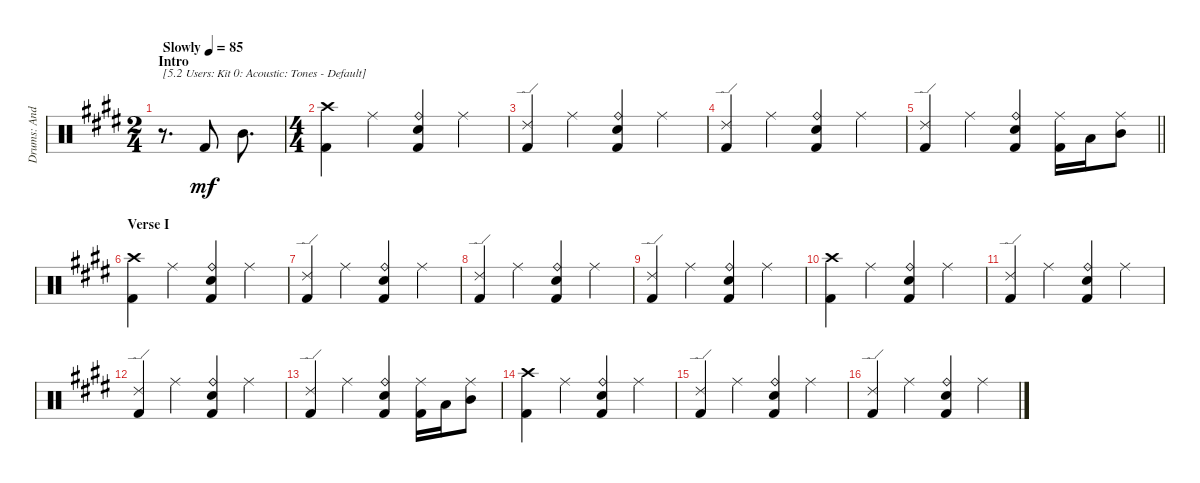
\track ("Drums: Andy" "Drums: And") {instrument percussion}
\staff {score}
\articulation defaults
\ts (2 4)
\section ("" "Intro")
\tempo (85 "Slowly")
\clef neutral
\ks e
r.8{d txt "[5.2 Users: Kit 0: Acoustic: Tones - Default]" dy mf} "Kick (hit) 2".8 "Mid Tom (hit)".8{d} |
\ts (4 4)
("Crash high (hit)" "Kick (hit) 2").4 "Ride (middle)".4 ("Ride (bell)" "Electric Snare (hit)" "Kick (hit) 2").4 "Ride (middle)".4 |
("Ride (edge) 2" "Kick (hit) 2").4 "Ride (middle)".4 ("Ride (bell)" "Electric Snare (hit)" "Kick (hit) 2").4 "Ride (middle)".4 |
("Ride (edge) 2" "Kick (hit) 2").4 "Ride (middle)".4 ("Ride (bell)" "Electric Snare (hit)" "Kick (hit) 2").4 "Ride (middle)".4 |
\barLineRight lightlight
("Ride (edge) 2" "Kick (hit) 2").4 "Ride (middle)".4 ("Ride (bell)" "Electric Snare (hit)" "Kick (hit) 2").4 ("Ride (middle)" "Kick (hit) 2").16 "Low Tom (hit)".16 ("Ride (middle)" "Mid Tom (hit)").8 |
\section ("" "Verse I")
("Crash high (hit)" "Kick (hit) 2").4 "Ride (middle)".4 ("Ride (bell)" "Electric Snare (hit)" "Kick (hit) 2").4 "Ride (middle)".4 |
("Ride (edge) 2" "Kick (hit) 2").4 "Ride (middle)".4 ("Ride (bell)" "Electric Snare (hit)" "Kick (hit) 2").4 "Ride (middle)".4 |
("Ride (edge) 2" "Kick (hit) 2").4 "Ride (middle)".4 ("Ride (bell)" "Electric Snare (hit)" "Kick (hit) 2").4 "Ride (middle)".4 |
("Ride (edge) 2" "Kick (hit) 2").4 "Ride (middle)".4 ("Ride (bell)" "Electric Snare (hit)" "Kick (hit) 2").4 "Ride (middle)".4 |
("Crash high (hit)" "Kick (hit) 2").4 "Ride (middle)".4 ("Ride (bell)" "Electric Snare (hit)" "Kick (hit) 2").4 "Ride (middle)".4 |
("Ride (edge) 2" "Kick (hit) 2").4 "Ride (middle)".4 ("Ride (bell)" "Electric Snare (hit)" "Kick (hit) 2").4 "Ride (middle)".4 |
("Ride (edge) 2" "Kick (hit) 2").4 "Ride (middle)".4 ("Ride (bell)" "Electric Snare (hit)" "Kick (hit) 2").4 "Ride (middle)".4 |
("Ride (edge) 2" "Kick (hit) 2").4 "Ride (middle)".4 ("Ride (bell)" "Electric Snare (hit)" "Kick (hit) 2").4 ("Ride (middle)" "Kick (hit) 2").16 "Low Tom (hit)".16 ("Ride (middle)" "Mid Tom (hit)").8 |
("Crash high (hit)" "Kick (hit) 2").4 "Ride (middle)".4 ("Ride (bell)" "Electric Snare (hit)" "Kick (hit) 2").4 "Ride (middle)".4 |
("Ride (edge) 2" "Kick (hit) 2").4 "Ride (middle)".4 ("Ride (bell)" "Electric Snare (hit)" "Kick (hit) 2").4 "Ride (middle)".4 |
("Ride (edge) 2" "Kick (hit) 2").4 "Ride (middle)".4 ("Ride (bell)" "Electric Snare (hit)" "Kick (hit) 2").4 "Ride (middle)".4
